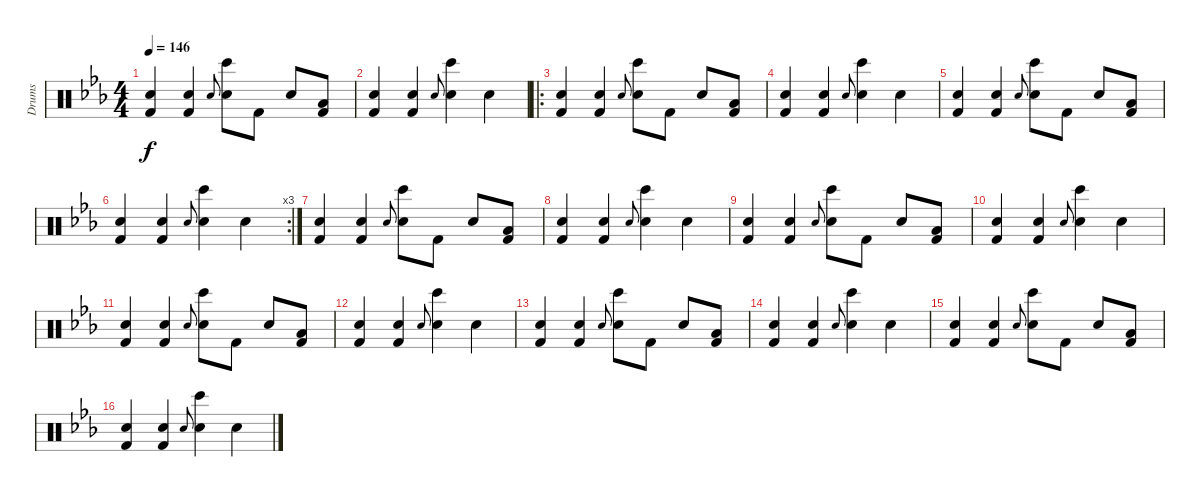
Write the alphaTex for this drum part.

\track ("Drums" "Drums") {instrument percussion}
\staff {score}
\articulation defaults
\ts (4 4)
\tempo 146
\clef neutral
\ks cminor
("Hand Clap (hit)" "Kick (hit) 2").4{dy f} ("Hand Clap (hit)" "Kick (hit) 2").4 "Electric Snare (hit)".8{gr onbeat} ("Hand Clap (hit)" "Bongo High (hit)").8 "Kick (hit) 2".8 "Hand Clap (hit)".8 ("Low Floor Tom (hit)" "Kick (hit) 2").8 |
("Hand Clap (hit)" "Kick (hit) 2").4 ("Hand Clap (hit)" "Kick (hit) 2").4 "Electric Snare (hit)".8{gr onbeat} ("Hand Clap (hit)" "Bongo High (hit)").4 "Hand Clap (hit)".4 |
\ro
("Hand Clap (hit)" "Kick (hit) 2").4 ("Hand Clap (hit)" "Kick (hit) 2").4 "Electric Snare (hit)".8{gr onbeat} ("Hand Clap (hit)" "Bongo High (hit)").8 "Kick (hit) 2".8 "Hand Clap (hit)".8 ("Low Floor Tom (hit)" "Kick (hit) 2").8 |
("Hand Clap (hit)" "Kick (hit) 2").4 ("Hand Clap (hit)" "Kick (hit) 2").4 "Electric Snare (hit)".8{gr onbeat} ("Hand Clap (hit)" "Bongo High (hit)").4 "Hand Clap (hit)".4 |
("Hand Clap (hit)" "Kick (hit) 2").4 ("Hand Clap (hit)" "Kick (hit) 2").4 "Electric Snare (hit)".8{gr onbeat} ("Hand Clap (hit)" "Bongo High (hit)").8 "Kick (hit) 2".8 "Hand Clap (hit)".8 ("Low Floor Tom (hit)" "Kick (hit) 2").8 |
\rc 3
("Hand Clap (hit)" "Kick (hit) 2").4 ("Hand Clap (hit)" "Kick (hit) 2").4 "Electric Snare (hit)".8{gr onbeat} ("Hand Clap (hit)" "Bongo High (hit)").4 "Hand Clap (hit)".4 |
("Hand Clap (hit)" "Kick (hit) 2").4 ("Hand Clap (hit)" "Kick (hit) 2").4 "Electric Snare (hit)".8{gr onbeat} ("Hand Clap (hit)" "Bongo High (hit)").8 "Kick (hit) 2".8 "Hand Clap (hit)".8 ("Low Floor Tom (hit)" "Kick (hit) 2").8 |
("Hand Clap (hit)" "Kick (hit) 2").4 ("Hand Clap (hit)" "Kick (hit) 2").4 "Electric Snare (hit)".8{gr onbeat} ("Hand Clap (hit)" "Bongo High (hit)").4 "Hand Clap (hit)".4 |
("Hand Clap (hit)" "Kick (hit) 2").4 ("Hand Clap (hit)" "Kick (hit) 2").4 "Electric Snare (hit)".8{gr onbeat} ("Hand Clap (hit)" "Bongo High (hit)").8 "Kick (hit) 2".8 "Hand Clap (hit)".8 ("Low Floor Tom (hit)" "Kick (hit) 2").8 |
("Hand Clap (hit)" "Kick (hit) 2").4 ("Hand Clap (hit)" "Kick (hit) 2").4 "Electric Snare (hit)".8{gr onbeat} ("Hand Clap (hit)" "Bongo High (hit)").4 "Hand Clap (hit)".4 |
("Hand Clap (hit)" "Kick (hit) 2").4 ("Hand Clap (hit)" "Kick (hit) 2").4 "Electric Snare (hit)".8{gr onbeat} ("Hand Clap (hit)" "Bongo High (hit)").8 "Kick (hit) 2".8 "Hand Clap (hit)".8 ("Low Floor Tom (hit)" "Kick (hit) 2").8 |
("Hand Clap (hit)" "Kick (hit) 2").4 ("Hand Clap (hit)" "Kick (hit) 2").4 "Electric Snare (hit)".8{gr onbeat} ("Hand Clap (hit)" "Bongo High (hit)").4 "Hand Clap (hit)".4 |
("Hand Clap (hit)" "Kick (hit) 2").4 ("Hand Clap (hit)" "Kick (hit) 2").4 "Electric Snare (hit)".8{gr onbeat} ("Hand Clap (hit)" "Bongo High (hit)").8 "Kick (hit) 2".8 "Hand Clap (hit)".8 ("Low Floor Tom (hit)" "Kick (hit) 2").8 |
("Hand Clap (hit)" "Kick (hit) 2").4 ("Hand Clap (hit)" "Kick (hit) 2").4 "Electric Snare (hit)".8{gr onbeat} ("Hand Clap (hit)" "Bongo High (hit)").4 "Hand Clap (hit)".4 |
("Hand Clap (hit)" "Kick (hit) 2").4 ("Hand Clap (hit)" "Kick (hit) 2").4 "Electric Snare (hit)".8{gr onbeat} ("Hand Clap (hit)" "Bongo High (hit)").8 "Kick (hit) 2".8 "Hand Clap (hit)".8 ("Low Floor Tom (hit)" "Kick (hit) 2").8 |
("Hand Clap (hit)" "Kick (hit) 2").4 ("Hand Clap (hit)" "Kick (hit) 2").4 "Electric Snare (hit)".8{gr onbeat} ("Hand Clap (hit)" "Bongo High (hit)").4 "Hand Clap (hit)".4
